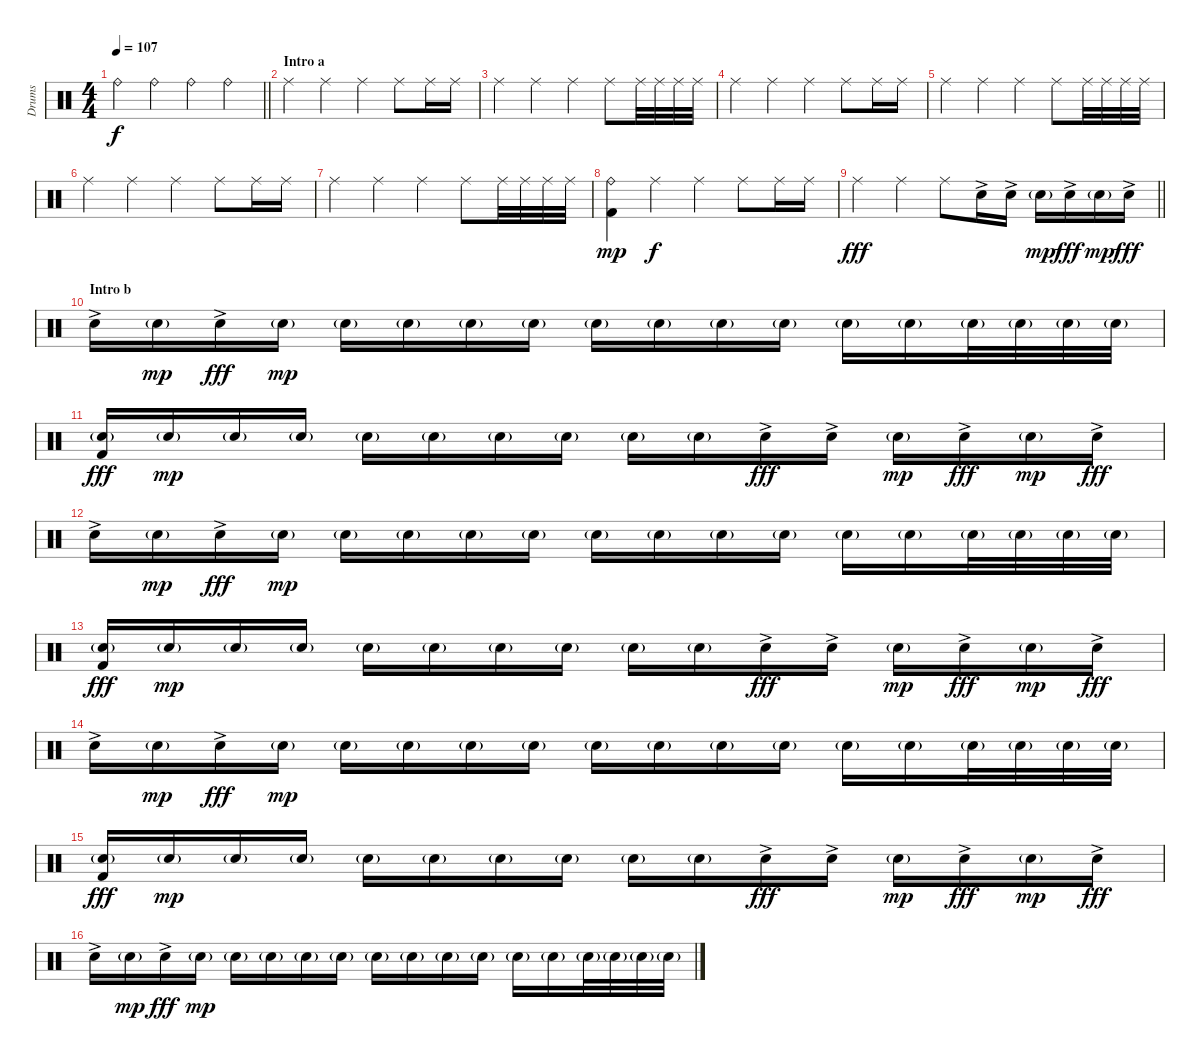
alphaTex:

\track ("Drums " "Drums ") {instrument percussion}
\staff {score}
\articulation defaults
\ts (4 4)
\tempo 107
\clef neutral
\barLineRight lightlight
\ks c "Ride (bell)".4{dy f} "Ride (bell)".4 "Ride (bell)".4 "Ride (bell)".4
|
\section ("" "Intro a")
"Ride (middle)".4 "Ride (middle)".4 "Ride (middle)".4 "Ride (middle)".8 "Ride (middle)".16 "Ride (middle)".16 |
"Ride (middle)".4 "Ride (middle)".4 "Ride (middle)".4 "Ride (middle)".8 "Ride (middle)".32 "Ride (middle)".32 "Ride (middle)".32 "Ride (middle)".32 |
"Ride (middle)".4 "Ride (middle)".4 "Ride (middle)".4 "Ride (middle)".8 "Ride (middle)".16 "Ride (middle)".16 |
"Ride (middle)".4 "Ride (middle)".4 "Ride (middle)".4 "Ride (middle)".8 "Ride (middle)".32 "Ride (middle)".32 "Ride (middle)".32 "Ride (middle)".32 |
"Ride (middle)".4 "Ride (middle)".4 "Ride (middle)".4 "Ride (middle)".8 "Ride (middle)".16 "Ride (middle)".16 |
"Ride (middle)".4 "Ride (middle)".4 "Ride (middle)".4 "Ride (middle)".8 "Ride (middle)".32 "Ride (middle)".32 "Ride (middle)".32 "Ride (middle)".32 |
("Ride (bell)" "Kick (hit) 2").4{dy mp} "Ride (middle)".4{dy f} "Ride (middle)".4 "Ride (middle)".8 "Ride (middle)".16 "Ride (middle)".16 |
\barLineRight lightlight "Ride (middle)".4{dy fff} "Ride (middle)".4 "Ride (middle)".8 "Electric Snare (hit)"{ac}.16 "Electric Snare (hit)"{ac}.16 "Electric Snare (hit)"{g}.16{dy mp} "Electric Snare (hit)"{ac}.16{dy fff} "Electric Snare (hit)"{g}.16{dy mp} "Electric Snare (hit)"{ac}.16{dy fff}
|
\section ("" "Intro b")
"Electric Snare (hit)"{ac}.16 "Electric Snare (hit)"{g}.16{dy mp} "Electric Snare (hit)"{ac}.16{dy fff} "Electric Snare (hit)"{g}.16{dy mp} "Electric Snare (hit)"{g}.16 "Electric Snare (hit)"{g}.16 "Electric Snare (hit)"{g}.16 "Electric Snare (hit)"{g}.16 "Electric Snare (hit)"{g}.16 "Electric Snare (hit)"{g}.16 "Electric Snare (hit)"{g}.16 "Electric Snare (hit)"{g}.16 "Electric Snare (hit)"{g}.16 "Electric Snare (hit)"{g}.16 "Electric Snare (hit)"{g}.32 "Electric Snare (hit)"{g}.32 "Electric Snare (hit)"{g}.32 "Electric Snare (hit)"{g}.32 |
("Electric Snare (hit)"{g} "Kick (hit) 2").16{dy fff} "Electric Snare (hit)"{g}.16{dy mp} "Electric Snare (hit)"{g}.16 "Electric Snare (hit)"{g}.16 "Electric Snare (hit)"{g}.16 "Electric Snare (hit)"{g}.16 "Electric Snare (hit)"{g}.16 "Electric Snare (hit)"{g}.16 "Electric Snare (hit)"{g}.16 "Electric Snare (hit)"{g}.16 "Electric Snare (hit)"{ac}.16{dy fff} "Electric Snare (hit)"{ac}.16 "Electric Snare (hit)"{g}.16{dy mp} "Electric Snare (hit)"{ac}.16{dy fff} "Electric Snare (hit)"{g}.16{dy mp} "Electric Snare (hit)"{ac}.16{dy fff} |
"Electric Snare (hit)"{ac}.16 "Electric Snare (hit)"{g}.16{dy mp} "Electric Snare (hit)"{ac}.16{dy fff} "Electric Snare (hit)"{g}.16{dy mp} "Electric Snare (hit)"{g}.16 "Electric Snare (hit)"{g}.16 "Electric Snare (hit)"{g}.16 "Electric Snare (hit)"{g}.16 "Electric Snare (hit)"{g}.16 "Electric Snare (hit)"{g}.16 "Electric Snare (hit)"{g}.16 "Electric Snare (hit)"{g}.16 "Electric Snare (hit)"{g}.16 "Electric Snare (hit)"{g}.16 "Electric Snare (hit)"{g}.32 "Electric Snare (hit)"{g}.32 "Electric Snare (hit)"{g}.32 "Electric Snare (hit)"{g}.32 |
("Electric Snare (hit)"{g} "Kick (hit) 2").16{dy fff} "Electric Snare (hit)"{g}.16{dy mp} "Electric Snare (hit)"{g}.16 "Electric Snare (hit)"{g}.16 "Electric Snare (hit)"{g}.16 "Electric Snare (hit)"{g}.16 "Electric Snare (hit)"{g}.16 "Electric Snare (hit)"{g}.16 "Electric Snare (hit)"{g}.16 "Electric Snare (hit)"{g}.16 "Electric Snare (hit)"{ac}.16{dy fff} "Electric Snare (hit)"{ac}.16 "Electric Snare (hit)"{g}.16{dy mp} "Electric Snare (hit)"{ac}.16{dy fff} "Electric Snare (hit)"{g}.16{dy mp} "Electric Snare (hit)"{ac}.16{dy fff} |
"Electric Snare (hit)"{ac}.16 "Electric Snare (hit)"{g}.16{dy mp} "Electric Snare (hit)"{ac}.16{dy fff} "Electric Snare (hit)"{g}.16{dy mp} "Electric Snare (hit)"{g}.16 "Electric Snare (hit)"{g}.16 "Electric Snare (hit)"{g}.16 "Electric Snare (hit)"{g}.16 "Electric Snare (hit)"{g}.16 "Electric Snare (hit)"{g}.16 "Electric Snare (hit)"{g}.16 "Electric Snare (hit)"{g}.16 "Electric Snare (hit)"{g}.16 "Electric Snare (hit)"{g}.16 "Electric Snare (hit)"{g}.32 "Electric Snare (hit)"{g}.32 "Electric Snare (hit)"{g}.32 "Electric Snare (hit)"{g}.32 |
("Electric Snare (hit)"{g} "Kick (hit) 2").16{dy fff} "Electric Snare (hit)"{g}.16{dy mp} "Electric Snare (hit)"{g}.16 "Electric Snare (hit)"{g}.16 "Electric Snare (hit)"{g}.16 "Electric Snare (hit)"{g}.16 "Electric Snare (hit)"{g}.16 "Electric Snare (hit)"{g}.16 "Electric Snare (hit)"{g}.16 "Electric Snare (hit)"{g}.16 "Electric Snare (hit)"{ac}.16{dy fff} "Electric Snare (hit)"{ac}.16 "Electric Snare (hit)"{g}.16{dy mp} "Electric Snare (hit)"{ac}.16{dy fff} "Electric Snare (hit)"{g}.16{dy mp} "Electric Snare (hit)"{ac}.16{dy fff} |
"Electric Snare (hit)"{ac}.16 "Electric Snare (hit)"{g}.16{dy mp} "Electric Snare (hit)"{ac}.16{dy fff} "Electric Snare (hit)"{g}.16{dy mp} "Electric Snare (hit)"{g}.16 "Electric Snare (hit)"{g}.16 "Electric Snare (hit)"{g}.16 "Electric Snare (hit)"{g}.16 "Electric Snare (hit)"{g}.16 "Electric Snare (hit)"{g}.16 "Electric Snare (hit)"{g}.16 "Electric Snare (hit)"{g}.16 "Electric Snare (hit)"{g}.16 "Electric Snare (hit)"{g}.16 "Electric Snare (hit)"{g}.32 "Electric Snare (hit)"{g}.32 "Electric Snare (hit)"{g}.32 "Electric Snare (hit)"{g}.32
